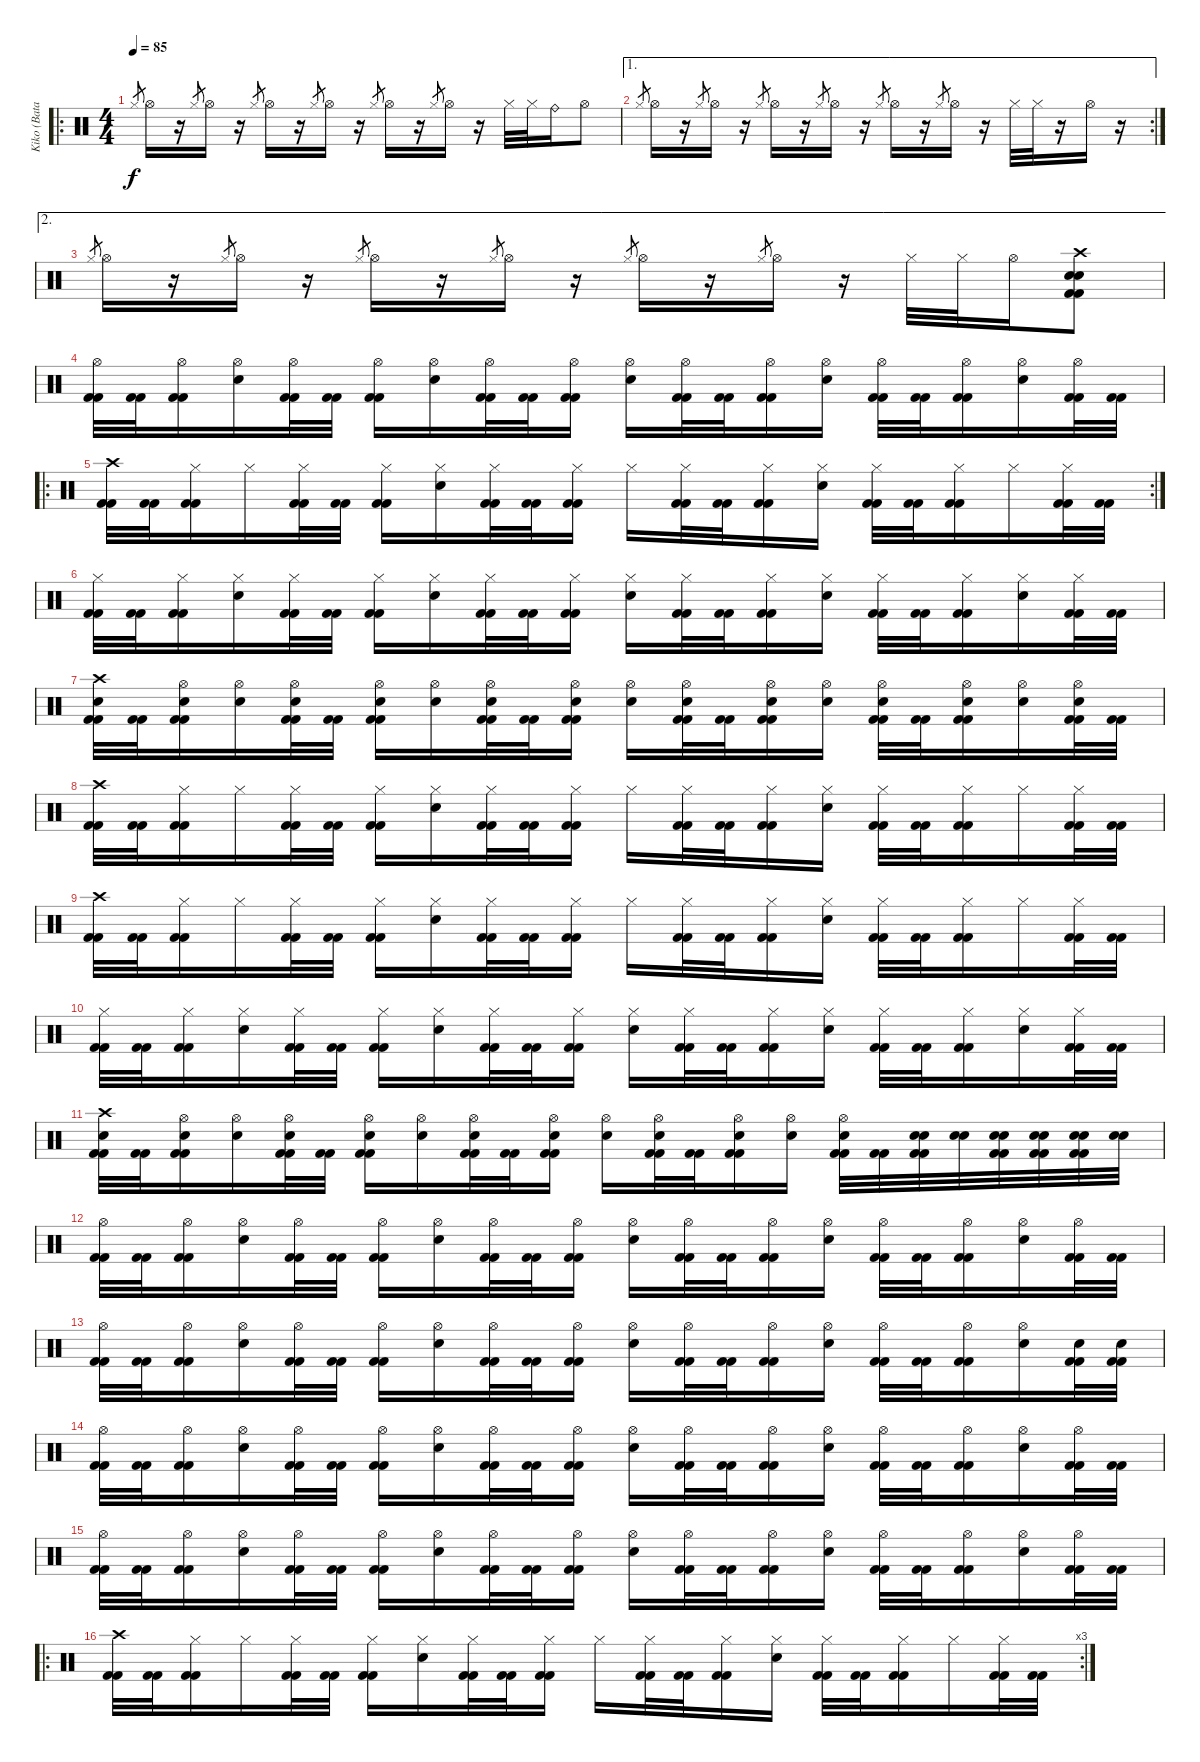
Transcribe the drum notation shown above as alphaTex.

\track ("Kiko (Bataca)" "Kiko (Bata") {instrument percussion}
\staff {score}
\articulation defaults
\ro
\ts (4 4)
\tempo 85
\clef neutral
\ks c "Hi-Hat (closed)".8{gr dy f} "Hi-Hat (open)".16
r.16 "Hi-Hat (closed)".8{gr} "Hi-Hat (open)".16 r.16 "Hi-Hat (closed)".8{gr} "Hi-Hat (open)".16 r.16 "Hi-Hat (closed)".8{gr} "Hi-Hat (open)".16 r.16 "Hi-Hat (closed)".8{gr} "Hi-Hat (open)".16 r.16 "Hi-Hat (closed)".8{gr} "Hi-Hat (open)".16 r.16 "Hi-Hat (closed)".32 "Hi-Hat (closed)".32 "Ride (bell)".16 "Hi-Hat (open)".8 |
\ae 1
\rc 2 "Hi-Hat (closed)".8{gr} "Hi-Hat (open)".16
r.16 "Hi-Hat (closed)".8{gr} "Hi-Hat (open)".16 r.16 "Hi-Hat (closed)".8{gr} "Hi-Hat (open)".16 r.16 "Hi-Hat (closed)".8{gr} "Hi-Hat (open)".16 r.16 "Hi-Hat (closed)".8{gr} "Hi-Hat (open)".16 r.16 "Hi-Hat (closed)".8{gr} "Hi-Hat (open)".16 r.16 "Hi-Hat (closed)".32 "Hi-Hat (closed)".32 r.16 "Hi-Hat (open)".16 r.16 |
\ae 2 "Hi-Hat (closed)".8{gr} "Hi-Hat (open)".16
r.16 "Hi-Hat (closed)".8{gr} "Hi-Hat (open)".16 r.16 "Hi-Hat (closed)".8{gr} "Hi-Hat (open)".16 r.16 "Hi-Hat (closed)".8{gr} "Hi-Hat (open)".16 r.16 "Hi-Hat (closed)".8{gr} "Hi-Hat (open)".16 r.16 "Hi-Hat (closed)".8{gr} "Hi-Hat (open)".16 r.16 "Hi-Hat (closed)".32 "Hi-Hat (closed)".32 "Hi-Hat (open)".16 ("Crash high (hit)" "Electric Snare (hit)" "Electric Snare (hit)" "Kick (hit) 2" "Kick (hit) 2").8 |
("Hi-Hat (open)" "Kick (hit) 2" "Kick (hit) 2").32 ("Kick (hit) 2" "Kick (hit) 2").32 ("Hi-Hat (open)" "Kick (hit) 2" "Kick (hit) 2").16 ("Hi-Hat (open)" "Electric Snare (hit)").16 ("Hi-Hat (open)" "Kick (hit) 2" "Kick (hit) 2").32 ("Kick (hit) 2" "Kick (hit) 2").32 ("Hi-Hat (open)" "Kick (hit) 2" "Kick (hit) 2").16 ("Hi-Hat (open)" "Electric Snare (hit)").16 ("Hi-Hat (open)" "Kick (hit) 2" "Kick (hit) 2").32 ("Kick (hit) 2" "Kick (hit) 2").32 ("Hi-Hat (open)" "Kick (hit) 2" "Kick (hit) 2").16 ("Hi-Hat (open)" "Electric Snare (hit)").16 ("Hi-Hat (open)" "Kick (hit) 2" "Kick (hit) 2").32 ("Kick (hit) 2" "Kick (hit) 2").32 ("Hi-Hat (open)" "Kick (hit) 2" "Kick (hit) 2").16 ("Hi-Hat (open)" "Electric Snare (hit)").16 ("Hi-Hat (open)" "Kick (hit) 2" "Kick (hit) 2").32 ("Kick (hit) 2" "Kick (hit) 2").32 ("Hi-Hat (open)" "Kick (hit) 2" "Kick (hit) 2").16 ("Hi-Hat (open)" "Electric Snare (hit)").16 ("Hi-Hat (open)" "Kick (hit) 2" "Kick (hit) 2").32 ("Kick (hit) 2" "Kick (hit) 2").32 |
\ro
\rc 2
("Crash high (hit)" "Kick (hit) 2" "Kick (hit) 2").32 ("Kick (hit) 2" "Kick (hit) 2").32 ("Hi-Hat (closed)" "Kick (hit) 2" "Kick (hit) 2").16 "Hi-Hat (closed)".16 ("Hi-Hat (closed)" "Kick (hit) 2" "Kick (hit) 2").32 ("Kick (hit) 2" "Kick (hit) 2").32 ("Hi-Hat (closed)" "Kick (hit) 2" "Kick (hit) 2").16 ("Hi-Hat (closed)" "Electric Snare (hit)").16 ("Hi-Hat (closed)" "Kick (hit) 2" "Kick (hit) 2").32 ("Kick (hit) 2" "Kick (hit) 2").32 ("Hi-Hat (closed)" "Kick (hit) 2" "Kick (hit) 2").16 "Hi-Hat (closed)".16 ("Hi-Hat (closed)" "Kick (hit) 2" "Kick (hit) 2").32 ("Kick (hit) 2" "Kick (hit) 2").32 ("Hi-Hat (closed)" "Kick (hit) 2" "Kick (hit) 2").16 ("Hi-Hat (closed)" "Electric Snare (hit)").16 ("Hi-Hat (closed)" "Kick (hit) 2" "Kick (hit) 2").32 ("Kick (hit) 2" "Kick (hit) 2").32 ("Hi-Hat (closed)" "Kick (hit) 2" "Kick (hit) 2").16 "Hi-Hat (closed)".16 ("Hi-Hat (closed)" "Kick (hit) 2" "Kick (hit) 2").32 ("Kick (hit) 2" "Kick (hit) 2").32 |
("Hi-Hat (closed)" "Kick (hit) 2" "Kick (hit) 2").32 ("Kick (hit) 2" "Kick (hit) 2").32 ("Hi-Hat (closed)" "Kick (hit) 2" "Kick (hit) 2").16 ("Hi-Hat (closed)" "Electric Snare (hit)").16 ("Hi-Hat (closed)" "Kick (hit) 2" "Kick (hit) 2").32 ("Kick (hit) 2" "Kick (hit) 2").32 ("Hi-Hat (closed)" "Kick (hit) 2" "Kick (hit) 2").16 ("Hi-Hat (closed)" "Electric Snare (hit)").16 ("Hi-Hat (closed)" "Kick (hit) 2" "Kick (hit) 2").32 ("Kick (hit) 2" "Kick (hit) 2").32 ("Hi-Hat (closed)" "Kick (hit) 2" "Kick (hit) 2").16 ("Hi-Hat (closed)" "Electric Snare (hit)").16 ("Hi-Hat (closed)" "Kick (hit) 2" "Kick (hit) 2").32 ("Kick (hit) 2" "Kick (hit) 2").32 ("Hi-Hat (closed)" "Kick (hit) 2" "Kick (hit) 2").16 ("Hi-Hat (closed)" "Electric Snare (hit)").16 ("Hi-Hat (closed)" "Kick (hit) 2" "Kick (hit) 2").32 ("Kick (hit) 2" "Kick (hit) 2").32 ("Hi-Hat (closed)" "Kick (hit) 2" "Kick (hit) 2").16 ("Hi-Hat (closed)" "Electric Snare (hit)").16 ("Hi-Hat (closed)" "Kick (hit) 2" "Kick (hit) 2").32 ("Kick (hit) 2" "Kick (hit) 2").32 |
("Crash high (hit)" "Electric Snare (hit)" "Kick (hit) 2" "Kick (hit) 2").32 ("Kick (hit) 2" "Kick (hit) 2").32 ("Hi-Hat (open)" "Electric Snare (hit)" "Kick (hit) 2" "Kick (hit) 2").16 ("Hi-Hat (open)" "Electric Snare (hit)").16 ("Hi-Hat (open)" "Electric Snare (hit)" "Kick (hit) 2" "Kick (hit) 2").32 ("Kick (hit) 2" "Kick (hit) 2").32 ("Hi-Hat (open)" "Electric Snare (hit)" "Kick (hit) 2" "Kick (hit) 2").16 ("Hi-Hat (open)" "Electric Snare (hit)").16 ("Hi-Hat (open)" "Electric Snare (hit)" "Kick (hit) 2" "Kick (hit) 2").32 ("Kick (hit) 2" "Kick (hit) 2").32 ("Hi-Hat (open)" "Electric Snare (hit)" "Kick (hit) 2" "Kick (hit) 2").16 ("Hi-Hat (open)" "Electric Snare (hit)").16 ("Hi-Hat (open)" "Electric Snare (hit)" "Kick (hit) 2" "Kick (hit) 2").32 ("Kick (hit) 2" "Kick (hit) 2").32 ("Hi-Hat (open)" "Electric Snare (hit)" "Kick (hit) 2" "Kick (hit) 2").16 ("Hi-Hat (open)" "Electric Snare (hit)").16 ("Hi-Hat (open)" "Electric Snare (hit)" "Kick (hit) 2" "Kick (hit) 2").32 ("Kick (hit) 2" "Kick (hit) 2").32 ("Hi-Hat (open)" "Electric Snare (hit)" "Kick (hit) 2" "Kick (hit) 2").16 ("Hi-Hat (open)" "Electric Snare (hit)").16 ("Hi-Hat (open)" "Electric Snare (hit)" "Kick (hit) 2" "Kick (hit) 2").32 ("Kick (hit) 2" "Kick (hit) 2").32 |
("Crash high (hit)" "Kick (hit) 2" "Kick (hit) 2").32 ("Kick (hit) 2" "Kick (hit) 2").32 ("Hi-Hat (closed)" "Kick (hit) 2" "Kick (hit) 2").16 "Hi-Hat (closed)".16 ("Hi-Hat (closed)" "Kick (hit) 2" "Kick (hit) 2").32 ("Kick (hit) 2" "Kick (hit) 2").32 ("Hi-Hat (closed)" "Kick (hit) 2" "Kick (hit) 2").16 ("Hi-Hat (closed)" "Electric Snare (hit)").16 ("Hi-Hat (closed)" "Kick (hit) 2" "Kick (hit) 2").32 ("Kick (hit) 2" "Kick (hit) 2").32 ("Hi-Hat (closed)" "Kick (hit) 2" "Kick (hit) 2").16 "Hi-Hat (closed)".16 ("Hi-Hat (closed)" "Kick (hit) 2" "Kick (hit) 2").32 ("Kick (hit) 2" "Kick (hit) 2").32 ("Hi-Hat (closed)" "Kick (hit) 2" "Kick (hit) 2").16 ("Hi-Hat (closed)" "Electric Snare (hit)").16 ("Hi-Hat (closed)" "Kick (hit) 2" "Kick (hit) 2").32 ("Kick (hit) 2" "Kick (hit) 2").32 ("Hi-Hat (closed)" "Kick (hit) 2" "Kick (hit) 2").16 "Hi-Hat (closed)".16 ("Hi-Hat (closed)" "Kick (hit) 2" "Kick (hit) 2").32 ("Kick (hit) 2" "Kick (hit) 2").32 |
("Crash high (hit)" "Kick (hit) 2" "Kick (hit) 2").32 ("Kick (hit) 2" "Kick (hit) 2").32 ("Hi-Hat (closed)" "Kick (hit) 2" "Kick (hit) 2").16 "Hi-Hat (closed)".16 ("Hi-Hat (closed)" "Kick (hit) 2" "Kick (hit) 2").32 ("Kick (hit) 2" "Kick (hit) 2").32 ("Hi-Hat (closed)" "Kick (hit) 2" "Kick (hit) 2").16 ("Hi-Hat (closed)" "Electric Snare (hit)").16 ("Hi-Hat (closed)" "Kick (hit) 2" "Kick (hit) 2").32 ("Kick (hit) 2" "Kick (hit) 2").32 ("Hi-Hat (closed)" "Kick (hit) 2" "Kick (hit) 2").16 "Hi-Hat (closed)".16 ("Hi-Hat (closed)" "Kick (hit) 2" "Kick (hit) 2").32 ("Kick (hit) 2" "Kick (hit) 2").32 ("Hi-Hat (closed)" "Kick (hit) 2" "Kick (hit) 2").16 ("Hi-Hat (closed)" "Electric Snare (hit)").16 ("Hi-Hat (closed)" "Kick (hit) 2" "Kick (hit) 2").32 ("Kick (hit) 2" "Kick (hit) 2").32 ("Hi-Hat (closed)" "Kick (hit) 2" "Kick (hit) 2").16 "Hi-Hat (closed)".16 ("Hi-Hat (closed)" "Kick (hit) 2" "Kick (hit) 2").32 ("Kick (hit) 2" "Kick (hit) 2").32 |
("Hi-Hat (closed)" "Kick (hit) 2" "Kick (hit) 2").32 ("Kick (hit) 2" "Kick (hit) 2").32 ("Hi-Hat (closed)" "Kick (hit) 2" "Kick (hit) 2").16 ("Hi-Hat (closed)" "Electric Snare (hit)").16 ("Hi-Hat (closed)" "Kick (hit) 2" "Kick (hit) 2").32 ("Kick (hit) 2" "Kick (hit) 2").32 ("Hi-Hat (closed)" "Kick (hit) 2" "Kick (hit) 2").16 ("Hi-Hat (closed)" "Electric Snare (hit)").16 ("Hi-Hat (closed)" "Kick (hit) 2" "Kick (hit) 2").32 ("Kick (hit) 2" "Kick (hit) 2").32 ("Hi-Hat (closed)" "Kick (hit) 2" "Kick (hit) 2").16 ("Hi-Hat (closed)" "Electric Snare (hit)").16 ("Hi-Hat (closed)" "Kick (hit) 2" "Kick (hit) 2").32 ("Kick (hit) 2" "Kick (hit) 2").32 ("Hi-Hat (closed)" "Kick (hit) 2" "Kick (hit) 2").16 ("Hi-Hat (closed)" "Electric Snare (hit)").16 ("Hi-Hat (closed)" "Kick (hit) 2" "Kick (hit) 2").32 ("Kick (hit) 2" "Kick (hit) 2").32 ("Hi-Hat (closed)" "Kick (hit) 2" "Kick (hit) 2").16 ("Hi-Hat (closed)" "Electric Snare (hit)").16 ("Hi-Hat (closed)" "Kick (hit) 2" "Kick (hit) 2").32 ("Kick (hit) 2" "Kick (hit) 2").32 |
("Crash high (hit)" "Electric Snare (hit)" "Kick (hit) 2" "Kick (hit) 2").32 ("Kick (hit) 2" "Kick (hit) 2").32 ("Hi-Hat (open)" "Electric Snare (hit)" "Kick (hit) 2" "Kick (hit) 2").16 ("Hi-Hat (open)" "Electric Snare (hit)").16 ("Hi-Hat (open)" "Electric Snare (hit)" "Kick (hit) 2" "Kick (hit) 2").32 ("Kick (hit) 2" "Kick (hit) 2").32 ("Hi-Hat (open)" "Electric Snare (hit)" "Kick (hit) 2" "Kick (hit) 2").16 ("Hi-Hat (open)" "Electric Snare (hit)").16 ("Hi-Hat (open)" "Electric Snare (hit)" "Kick (hit) 2" "Kick (hit) 2").32 ("Kick (hit) 2" "Kick (hit) 2").32 ("Hi-Hat (open)" "Electric Snare (hit)" "Kick (hit) 2" "Kick (hit) 2").16 ("Hi-Hat (open)" "Electric Snare (hit)").16 ("Hi-Hat (open)" "Electric Snare (hit)" "Kick (hit) 2" "Kick (hit) 2").32 ("Kick (hit) 2" "Kick (hit) 2").32 ("Hi-Hat (open)" "Electric Snare (hit)" "Kick (hit) 2" "Kick (hit) 2").16 ("Hi-Hat (open)" "Electric Snare (hit)").16 ("Hi-Hat (open)" "Electric Snare (hit)" "Kick (hit) 2" "Kick (hit) 2").32 ("Kick (hit) 2" "Kick (hit) 2").32 ("Electric Snare (hit)" "Electric Snare (hit)" "Kick (hit) 2" "Kick (hit) 2").32 ("Electric Snare (hit)" "Electric Snare (hit)").32 ("Electric Snare (hit)" "Electric Snare (hit)" "Kick (hit) 2" "Kick (hit) 2").32 ("Electric Snare (hit)" "Electric Snare (hit)" "Kick (hit) 2" "Kick (hit) 2").32 ("Electric Snare (hit)" "Electric Snare (hit)" "Kick (hit) 2" "Kick (hit) 2").32 ("Electric Snare (hit)" "Electric Snare (hit)").32 |
("Hi-Hat (open)" "Kick (hit) 2" "Kick (hit) 2").32 ("Kick (hit) 2" "Kick (hit) 2").32 ("Hi-Hat (open)" "Kick (hit) 2" "Kick (hit) 2").16 ("Hi-Hat (open)" "Electric Snare (hit)").16 ("Hi-Hat (open)" "Kick (hit) 2" "Kick (hit) 2").32 ("Kick (hit) 2" "Kick (hit) 2").32 ("Hi-Hat (open)" "Kick (hit) 2" "Kick (hit) 2").16 ("Hi-Hat (open)" "Electric Snare (hit)").16 ("Hi-Hat (open)" "Kick (hit) 2" "Kick (hit) 2").32 ("Kick (hit) 2" "Kick (hit) 2").32 ("Hi-Hat (open)" "Kick (hit) 2" "Kick (hit) 2").16 ("Hi-Hat (open)" "Electric Snare (hit)").16 ("Hi-Hat (open)" "Kick (hit) 2" "Kick (hit) 2").32 ("Kick (hit) 2" "Kick (hit) 2").32 ("Hi-Hat (open)" "Kick (hit) 2" "Kick (hit) 2").16 ("Hi-Hat (open)" "Electric Snare (hit)").16 ("Hi-Hat (open)" "Kick (hit) 2" "Kick (hit) 2").32 ("Kick (hit) 2" "Kick (hit) 2").32 ("Hi-Hat (open)" "Kick (hit) 2" "Kick (hit) 2").16 ("Hi-Hat (open)" "Electric Snare (hit)").16 ("Hi-Hat (open)" "Kick (hit) 2" "Kick (hit) 2").32 ("Kick (hit) 2" "Kick (hit) 2").32 |
("Hi-Hat (open)" "Kick (hit) 2" "Kick (hit) 2").32 ("Kick (hit) 2" "Kick (hit) 2").32 ("Hi-Hat (open)" "Kick (hit) 2" "Kick (hit) 2").16 ("Hi-Hat (open)" "Electric Snare (hit)").16 ("Hi-Hat (open)" "Kick (hit) 2" "Kick (hit) 2").32 ("Kick (hit) 2" "Kick (hit) 2").32 ("Hi-Hat (open)" "Kick (hit) 2" "Kick (hit) 2").16 ("Hi-Hat (open)" "Electric Snare (hit)").16 ("Hi-Hat (open)" "Kick (hit) 2" "Kick (hit) 2").32 ("Kick (hit) 2" "Kick (hit) 2").32 ("Hi-Hat (open)" "Kick (hit) 2" "Kick (hit) 2").16 ("Hi-Hat (open)" "Electric Snare (hit)").16 ("Hi-Hat (open)" "Kick (hit) 2" "Kick (hit) 2").32 ("Kick (hit) 2" "Kick (hit) 2").32 ("Hi-Hat (open)" "Kick (hit) 2" "Kick (hit) 2").16 ("Hi-Hat (open)" "Electric Snare (hit)").16 ("Hi-Hat (open)" "Kick (hit) 2" "Kick (hit) 2").32 ("Kick (hit) 2" "Kick (hit) 2").32 ("Hi-Hat (open)" "Kick (hit) 2" "Kick (hit) 2").16 ("Hi-Hat (open)" "Electric Snare (hit)").16 ("Electric Snare (hit)" "Kick (hit) 2" "Kick (hit) 2").32 ("Electric Snare (hit)" "Kick (hit) 2" "Kick (hit) 2").32 |
("Hi-Hat (open)" "Kick (hit) 2" "Kick (hit) 2").32 ("Kick (hit) 2" "Kick (hit) 2").32 ("Hi-Hat (open)" "Kick (hit) 2" "Kick (hit) 2").16 ("Hi-Hat (open)" "Electric Snare (hit)").16 ("Hi-Hat (open)" "Kick (hit) 2" "Kick (hit) 2").32 ("Kick (hit) 2" "Kick (hit) 2").32 ("Hi-Hat (open)" "Kick (hit) 2" "Kick (hit) 2").16 ("Hi-Hat (open)" "Electric Snare (hit)").16 ("Hi-Hat (open)" "Kick (hit) 2" "Kick (hit) 2").32 ("Kick (hit) 2" "Kick (hit) 2").32 ("Hi-Hat (open)" "Kick (hit) 2" "Kick (hit) 2").16 ("Hi-Hat (open)" "Electric Snare (hit)").16 ("Hi-Hat (open)" "Kick (hit) 2" "Kick (hit) 2").32 ("Kick (hit) 2" "Kick (hit) 2").32 ("Hi-Hat (open)" "Kick (hit) 2" "Kick (hit) 2").16 ("Hi-Hat (open)" "Electric Snare (hit)").16 ("Hi-Hat (open)" "Kick (hit) 2" "Kick (hit) 2").32 ("Kick (hit) 2" "Kick (hit) 2").32 ("Hi-Hat (open)" "Kick (hit) 2" "Kick (hit) 2").16 ("Hi-Hat (open)" "Electric Snare (hit)").16 ("Hi-Hat (open)" "Kick (hit) 2" "Kick (hit) 2").32 ("Kick (hit) 2" "Kick (hit) 2").32 |
("Hi-Hat (open)" "Kick (hit) 2" "Kick (hit) 2").32 ("Kick (hit) 2" "Kick (hit) 2").32 ("Hi-Hat (open)" "Kick (hit) 2" "Kick (hit) 2").16 ("Hi-Hat (open)" "Electric Snare (hit)").16 ("Hi-Hat (open)" "Kick (hit) 2" "Kick (hit) 2").32 ("Kick (hit) 2" "Kick (hit) 2").32 ("Hi-Hat (open)" "Kick (hit) 2" "Kick (hit) 2").16 ("Hi-Hat (open)" "Electric Snare (hit)").16 ("Hi-Hat (open)" "Kick (hit) 2" "Kick (hit) 2").32 ("Kick (hit) 2" "Kick (hit) 2").32 ("Hi-Hat (open)" "Kick (hit) 2" "Kick (hit) 2").16 ("Hi-Hat (open)" "Electric Snare (hit)").16 ("Hi-Hat (open)" "Kick (hit) 2" "Kick (hit) 2").32 ("Kick (hit) 2" "Kick (hit) 2").32 ("Hi-Hat (open)" "Kick (hit) 2" "Kick (hit) 2").16 ("Hi-Hat (open)" "Electric Snare (hit)").16 ("Hi-Hat (open)" "Kick (hit) 2" "Kick (hit) 2").32 ("Kick (hit) 2" "Kick (hit) 2").32 ("Hi-Hat (open)" "Kick (hit) 2" "Kick (hit) 2").16 ("Hi-Hat (open)" "Electric Snare (hit)").16 ("Hi-Hat (open)" "Kick (hit) 2" "Kick (hit) 2").32 ("Kick (hit) 2" "Kick (hit) 2").32 |
\ro
\rc 3
("Crash high (hit)" "Kick (hit) 2" "Kick (hit) 2").32 ("Kick (hit) 2" "Kick (hit) 2").32 ("Hi-Hat (closed)" "Kick (hit) 2" "Kick (hit) 2").16 "Hi-Hat (closed)".16 ("Hi-Hat (closed)" "Kick (hit) 2" "Kick (hit) 2").32 ("Kick (hit) 2" "Kick (hit) 2").32 ("Hi-Hat (closed)" "Kick (hit) 2" "Kick (hit) 2").16 ("Hi-Hat (closed)" "Electric Snare (hit)").16 ("Hi-Hat (closed)" "Kick (hit) 2" "Kick (hit) 2").32 ("Kick (hit) 2" "Kick (hit) 2").32 ("Hi-Hat (closed)" "Kick (hit) 2" "Kick (hit) 2").16 "Hi-Hat (closed)".16 ("Hi-Hat (closed)" "Kick (hit) 2" "Kick (hit) 2").32 ("Kick (hit) 2" "Kick (hit) 2").32 ("Hi-Hat (closed)" "Kick (hit) 2" "Kick (hit) 2").16 ("Hi-Hat (closed)" "Electric Snare (hit)").16 ("Hi-Hat (closed)" "Kick (hit) 2" "Kick (hit) 2").32 ("Kick (hit) 2" "Kick (hit) 2").32 ("Hi-Hat (closed)" "Kick (hit) 2" "Kick (hit) 2").16 "Hi-Hat (closed)".16 ("Hi-Hat (closed)" "Kick (hit) 2" "Kick (hit) 2").32 ("Kick (hit) 2" "Kick (hit) 2").32
